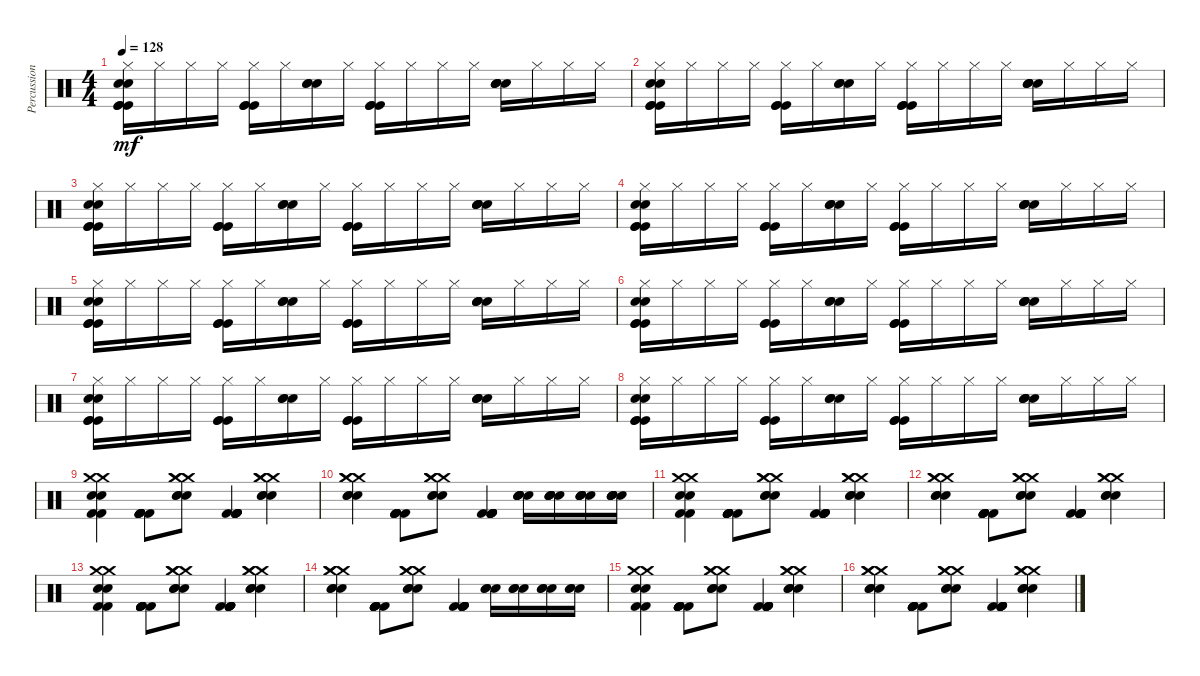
\track ("Percussion" "Percussion") {instrument percussion}
\staff {score}
\articulation defaults
\ts (4 4)
\tempo 128
\clef neutral
\ks c
("Hi-Hat (closed)" "Kick (hit)" "Kick (hit)" "Kick (hit)" "Snare (hit) 2" "Snare (hit) 2").16{dy mf} "Hi-Hat (closed)".16 "Hi-Hat (closed)".16 "Hi-Hat (closed)".16 ("Hi-Hat (closed)" "Kick (hit)" "Kick (hit)" "Kick (hit)").16 "Hi-Hat (closed)".16 ("Snare (hit) 2" "Snare (hit) 2" "Snare (hit) 2").16 "Hi-Hat (closed)".16 ("Hi-Hat (closed)" "Kick (hit)" "Kick (hit)" "Kick (hit)").16 "Hi-Hat (closed)".16 "Hi-Hat (closed)".16 "Hi-Hat (closed)".16 ("Snare (hit) 2" "Snare (hit) 2" "Snare (hit) 2" "Snare (hit) 2").16 "Hi-Hat (closed)".16 "Hi-Hat (closed)".16 "Hi-Hat (closed)".16 |
("Hi-Hat (closed)" "Kick (hit)" "Kick (hit)" "Kick (hit)" "Snare (hit) 2" "Snare (hit) 2").16 "Hi-Hat (closed)".16 "Hi-Hat (closed)".16 "Hi-Hat (closed)".16 ("Hi-Hat (closed)" "Kick (hit)" "Kick (hit)" "Kick (hit)").16 "Hi-Hat (closed)".16 ("Snare (hit) 2" "Snare (hit) 2" "Snare (hit) 2").16 "Hi-Hat (closed)".16 ("Hi-Hat (closed)" "Kick (hit)" "Kick (hit)" "Kick (hit)").16 "Hi-Hat (closed)".16 "Hi-Hat (closed)".16 "Hi-Hat (closed)".16 ("Snare (hit) 2" "Snare (hit) 2" "Snare (hit) 2" "Snare (hit) 2").16 "Hi-Hat (closed)".16 "Hi-Hat (closed)".16 "Hi-Hat (closed)".16 |
("Hi-Hat (closed)" "Kick (hit)" "Kick (hit)" "Kick (hit)" "Snare (hit) 2" "Snare (hit) 2").16 "Hi-Hat (closed)".16 "Hi-Hat (closed)".16 "Hi-Hat (closed)".16 ("Hi-Hat (closed)" "Kick (hit)" "Kick (hit)" "Kick (hit)").16 "Hi-Hat (closed)".16 ("Snare (hit) 2" "Snare (hit) 2" "Snare (hit) 2").16 "Hi-Hat (closed)".16 ("Hi-Hat (closed)" "Kick (hit)" "Kick (hit)" "Kick (hit)").16 "Hi-Hat (closed)".16 "Hi-Hat (closed)".16 "Hi-Hat (closed)".16 ("Snare (hit) 2" "Snare (hit) 2" "Snare (hit) 2" "Snare (hit) 2").16 "Hi-Hat (closed)".16 "Hi-Hat (closed)".16 "Hi-Hat (closed)".16 |
("Hi-Hat (closed)" "Kick (hit)" "Kick (hit)" "Kick (hit)" "Snare (hit) 2" "Snare (hit) 2").16 "Hi-Hat (closed)".16 "Hi-Hat (closed)".16 "Hi-Hat (closed)".16 ("Hi-Hat (closed)" "Kick (hit)" "Kick (hit)" "Kick (hit)").16 "Hi-Hat (closed)".16 ("Snare (hit) 2" "Snare (hit) 2" "Snare (hit) 2").16 "Hi-Hat (closed)".16 ("Hi-Hat (closed)" "Kick (hit)" "Kick (hit)" "Kick (hit)").16 "Hi-Hat (closed)".16 "Hi-Hat (closed)".16 "Hi-Hat (closed)".16 ("Snare (hit) 2" "Snare (hit) 2" "Snare (hit) 2" "Snare (hit) 2").16 "Hi-Hat (closed)".16 "Hi-Hat (closed)".16 "Hi-Hat (closed)".16 |
("Hi-Hat (closed)" "Kick (hit)" "Kick (hit)" "Kick (hit)" "Snare (hit) 2" "Snare (hit) 2").16 "Hi-Hat (closed)".16 "Hi-Hat (closed)".16 "Hi-Hat (closed)".16 ("Hi-Hat (closed)" "Kick (hit)" "Kick (hit)" "Kick (hit)").16 "Hi-Hat (closed)".16 ("Snare (hit) 2" "Snare (hit) 2" "Snare (hit) 2").16 "Hi-Hat (closed)".16 ("Hi-Hat (closed)" "Kick (hit)" "Kick (hit)" "Kick (hit)").16 "Hi-Hat (closed)".16 "Hi-Hat (closed)".16 "Hi-Hat (closed)".16 ("Snare (hit) 2" "Snare (hit) 2" "Snare (hit) 2" "Snare (hit) 2").16 "Hi-Hat (closed)".16 "Hi-Hat (closed)".16 "Hi-Hat (closed)".16 |
("Hi-Hat (closed)" "Kick (hit)" "Kick (hit)" "Kick (hit)" "Snare (hit) 2" "Snare (hit) 2").16 "Hi-Hat (closed)".16 "Hi-Hat (closed)".16 "Hi-Hat (closed)".16 ("Hi-Hat (closed)" "Kick (hit)" "Kick (hit)" "Kick (hit)").16 "Hi-Hat (closed)".16 ("Snare (hit) 2" "Snare (hit) 2" "Snare (hit) 2").16 "Hi-Hat (closed)".16 ("Hi-Hat (closed)" "Kick (hit)" "Kick (hit)" "Kick (hit)").16 "Hi-Hat (closed)".16 "Hi-Hat (closed)".16 "Hi-Hat (closed)".16 ("Snare (hit) 2" "Snare (hit) 2" "Snare (hit) 2" "Snare (hit) 2").16 "Hi-Hat (closed)".16 "Hi-Hat (closed)".16 "Hi-Hat (closed)".16 |
("Hi-Hat (closed)" "Kick (hit)" "Kick (hit)" "Kick (hit)" "Snare (hit) 2" "Snare (hit) 2").16 "Hi-Hat (closed)".16 "Hi-Hat (closed)".16 "Hi-Hat (closed)".16 ("Hi-Hat (closed)" "Kick (hit)" "Kick (hit)" "Kick (hit)").16 "Hi-Hat (closed)".16 ("Snare (hit) 2" "Snare (hit) 2" "Snare (hit) 2").16 "Hi-Hat (closed)".16 ("Hi-Hat (closed)" "Kick (hit)" "Kick (hit)" "Kick (hit)").16 "Hi-Hat (closed)".16 "Hi-Hat (closed)".16 "Hi-Hat (closed)".16 ("Snare (hit) 2" "Snare (hit) 2" "Snare (hit) 2" "Snare (hit) 2").16 "Hi-Hat (closed)".16 "Hi-Hat (closed)".16 "Hi-Hat (closed)".16 |
("Hi-Hat (closed)" "Kick (hit)" "Kick (hit)" "Kick (hit)" "Snare (hit) 2" "Snare (hit) 2").16 "Hi-Hat (closed)".16 "Hi-Hat (closed)".16 "Hi-Hat (closed)".16 ("Hi-Hat (closed)" "Kick (hit)" "Kick (hit)" "Kick (hit)").16 "Hi-Hat (closed)".16 ("Snare (hit) 2" "Snare (hit) 2" "Snare (hit) 2").16 "Hi-Hat (closed)".16 ("Hi-Hat (closed)" "Kick (hit)" "Kick (hit)" "Kick (hit)").16 "Hi-Hat (closed)".16 "Hi-Hat (closed)".16 "Hi-Hat (closed)".16 ("Snare (hit) 2" "Snare (hit) 2" "Snare (hit) 2" "Snare (hit) 2").16 "Hi-Hat (closed)".16 "Hi-Hat (closed)".16 "Hi-Hat (closed)".16 |
("Snare (hit) 2" "Snare (hit) 2" "Kick (hit) 2" "Kick (hit) 2" "Crash medium (hit)" "Crash medium (hit)").4 ("Kick (hit) 2" "Kick (hit) 2" "Kick (hit) 2" "Kick (hit) 2" "Kick (hit) 2" "Kick (hit) 2").8 ("Snare (hit) 2" "Crash medium (hit)" "Snare (hit) 2" "Crash medium (hit)" "Snare (hit) 2" "Crash medium (hit)").8 ("Kick (hit) 2" "Kick (hit) 2" "Kick (hit) 2" "Kick (hit) 2" "Kick (hit) 2" "Kick (hit) 2").4 ("Snare (hit) 2" "Crash medium (hit)" "Snare (hit) 2" "Crash medium (hit)" "Snare (hit) 2" "Crash medium (hit)").4 |
("Snare (hit) 2" "Crash medium (hit)" "Snare (hit) 2" "Crash medium (hit)" "Snare (hit) 2" "Crash medium (hit)").4 ("Kick (hit) 2" "Kick (hit) 2" "Kick (hit) 2" "Kick (hit) 2" "Kick (hit) 2" "Kick (hit) 2").8 ("Snare (hit) 2" "Crash medium (hit)" "Snare (hit) 2" "Crash medium (hit)" "Snare (hit) 2" "Crash medium (hit)").8 ("Kick (hit) 2" "Kick (hit) 2" "Kick (hit) 2" "Kick (hit) 2" "Kick (hit) 2" "Kick (hit) 2").4 ("Snare (hit) 2" "Snare (hit) 2" "Snare (hit) 2" "Snare (hit) 2" "Snare (hit) 2").16 ("Snare (hit) 2" "Snare (hit) 2" "Snare (hit) 2" "Snare (hit) 2" "Snare (hit) 2").16 ("Snare (hit) 2" "Snare (hit) 2" "Snare (hit) 2" "Snare (hit) 2" "Snare (hit) 2").16 ("Snare (hit) 2" "Snare (hit) 2" "Snare (hit) 2" "Snare (hit) 2" "Snare (hit) 2").16 |
("Snare (hit) 2" "Snare (hit) 2" "Kick (hit) 2" "Kick (hit) 2" "Crash medium (hit)" "Crash medium (hit)").4 ("Kick (hit) 2" "Kick (hit) 2" "Kick (hit) 2" "Kick (hit) 2" "Kick (hit) 2" "Kick (hit) 2").8 ("Snare (hit) 2" "Crash medium (hit)" "Snare (hit) 2" "Crash medium (hit)" "Snare (hit) 2" "Crash medium (hit)").8 ("Kick (hit) 2" "Kick (hit) 2" "Kick (hit) 2" "Kick (hit) 2" "Kick (hit) 2" "Kick (hit) 2").4 ("Snare (hit) 2" "Crash medium (hit)" "Snare (hit) 2" "Crash medium (hit)" "Snare (hit) 2" "Crash medium (hit)").4 |
("Snare (hit) 2" "Crash medium (hit)" "Snare (hit) 2" "Crash medium (hit)" "Snare (hit) 2" "Crash medium (hit)").4 ("Kick (hit) 2" "Kick (hit) 2" "Kick (hit) 2" "Kick (hit) 2" "Kick (hit) 2" "Kick (hit) 2").8 ("Snare (hit) 2" "Crash medium (hit)" "Snare (hit) 2" "Crash medium (hit)" "Snare (hit) 2" "Crash medium (hit)").8 ("Kick (hit) 2" "Kick (hit) 2" "Kick (hit) 2" "Kick (hit) 2" "Kick (hit) 2" "Kick (hit) 2").4 ("Snare (hit) 2" "Crash medium (hit)" "Snare (hit) 2" "Crash medium (hit)" "Snare (hit) 2" "Crash medium (hit)").4 |
("Snare (hit) 2" "Snare (hit) 2" "Kick (hit) 2" "Kick (hit) 2" "Crash medium (hit)" "Crash medium (hit)").4 ("Kick (hit) 2" "Kick (hit) 2" "Kick (hit) 2" "Kick (hit) 2" "Kick (hit) 2" "Kick (hit) 2").8 ("Snare (hit) 2" "Crash medium (hit)" "Snare (hit) 2" "Crash medium (hit)" "Snare (hit) 2" "Crash medium (hit)").8 ("Kick (hit) 2" "Kick (hit) 2" "Kick (hit) 2" "Kick (hit) 2" "Kick (hit) 2" "Kick (hit) 2").4 ("Snare (hit) 2" "Crash medium (hit)" "Snare (hit) 2" "Crash medium (hit)" "Snare (hit) 2" "Crash medium (hit)").4 |
("Snare (hit) 2" "Crash medium (hit)" "Snare (hit) 2" "Crash medium (hit)" "Snare (hit) 2" "Crash medium (hit)").4 ("Kick (hit) 2" "Kick (hit) 2" "Kick (hit) 2" "Kick (hit) 2" "Kick (hit) 2" "Kick (hit) 2").8 ("Snare (hit) 2" "Crash medium (hit)" "Snare (hit) 2" "Crash medium (hit)" "Snare (hit) 2" "Crash medium (hit)").8 ("Kick (hit) 2" "Kick (hit) 2" "Kick (hit) 2" "Kick (hit) 2" "Kick (hit) 2" "Kick (hit) 2").4 ("Snare (hit) 2" "Snare (hit) 2" "Snare (hit) 2").16 ("Snare (hit) 2" "Snare (hit) 2" "Snare (hit) 2").16 ("Snare (hit) 2" "Snare (hit) 2" "Snare (hit) 2").16 ("Snare (hit) 2" "Snare (hit) 2" "Snare (hit) 2").16 |
("Snare (hit) 2" "Snare (hit) 2" "Kick (hit) 2" "Kick (hit) 2" "Crash medium (hit)" "Crash medium (hit)").4 ("Kick (hit) 2" "Kick (hit) 2" "Kick (hit) 2" "Kick (hit) 2" "Kick (hit) 2" "Kick (hit) 2").8 ("Snare (hit) 2" "Crash medium (hit)" "Snare (hit) 2" "Crash medium (hit)" "Snare (hit) 2" "Crash medium (hit)").8 ("Kick (hit) 2" "Kick (hit) 2" "Kick (hit) 2" "Kick (hit) 2" "Kick (hit) 2" "Kick (hit) 2").4 ("Snare (hit) 2" "Crash medium (hit)" "Snare (hit) 2" "Crash medium (hit)" "Snare (hit) 2" "Crash medium (hit)").4 |
("Snare (hit) 2" "Crash medium (hit)" "Snare (hit) 2" "Crash medium (hit)" "Snare (hit) 2" "Crash medium (hit)").4 ("Kick (hit) 2" "Kick (hit) 2" "Kick (hit) 2" "Kick (hit) 2" "Kick (hit) 2" "Kick (hit) 2").8 ("Snare (hit) 2" "Crash medium (hit)" "Snare (hit) 2" "Crash medium (hit)" "Snare (hit) 2" "Crash medium (hit)").8 ("Kick (hit) 2" "Kick (hit) 2" "Kick (hit) 2" "Kick (hit) 2" "Kick (hit) 2" "Kick (hit) 2").4 ("Snare (hit) 2" "Crash medium (hit)" "Snare (hit) 2" "Crash medium (hit)" "Snare (hit) 2" "Crash medium (hit)").4
